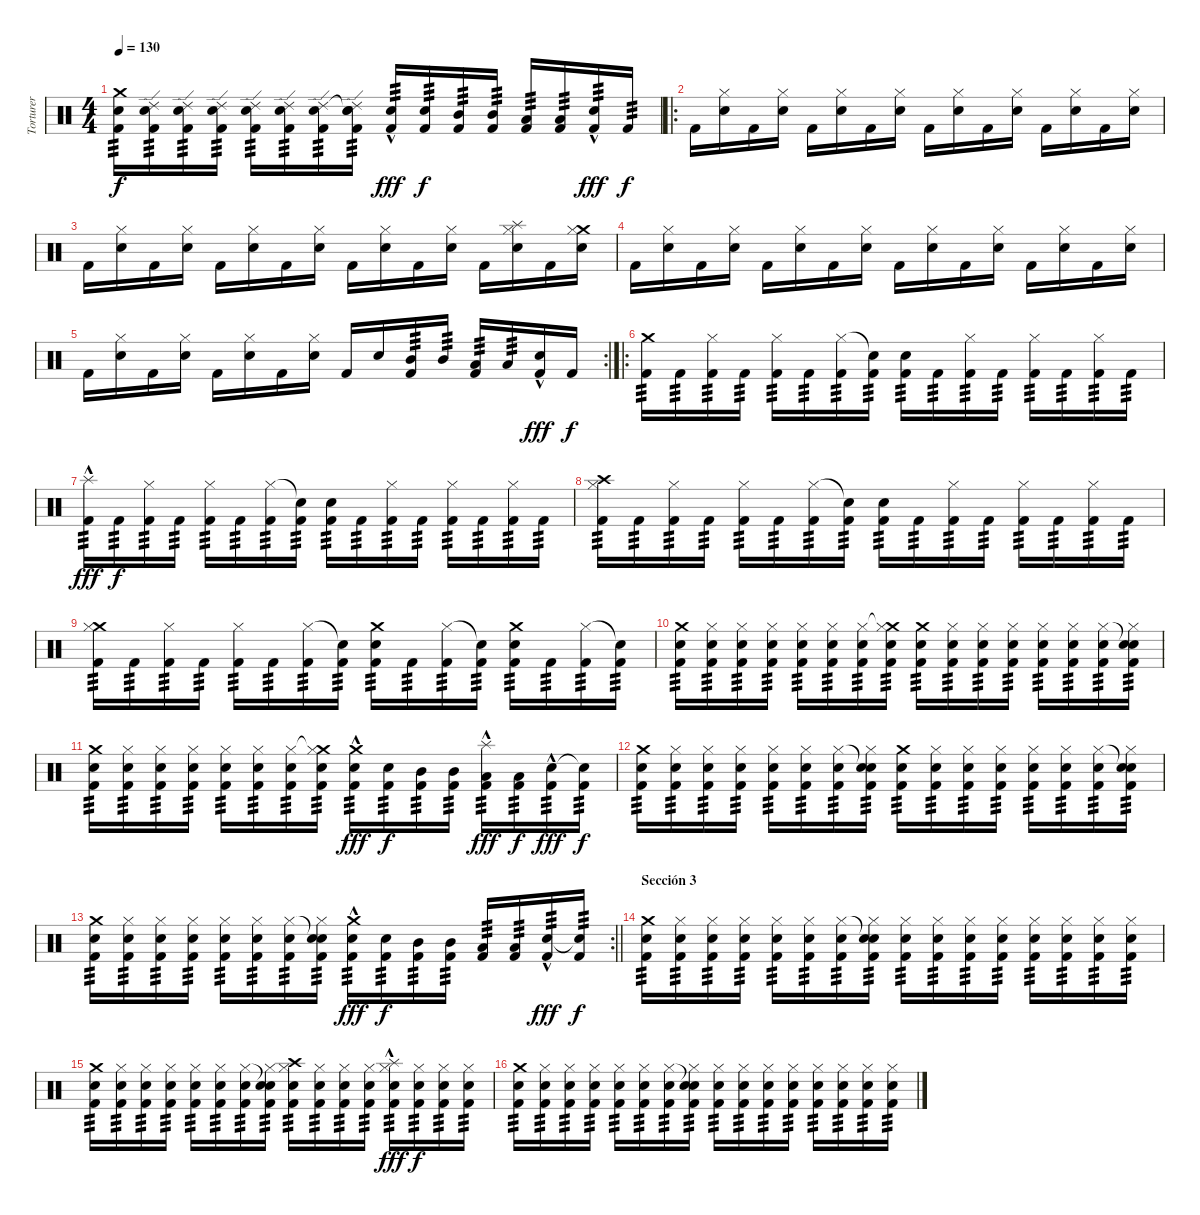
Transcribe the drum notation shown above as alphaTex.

\track ("Torturer" "Torturer") {instrument percussion}
\staff {score}
\articulation defaults
\ts (4 4)
\tempo 130
\clef neutral
\ks c
("Crash medium (hit)" "Snare (hit) 2" "Kick (hit) 2").16{tp 3 dy f} ("Ride (edge) 2" "Snare (hit) 2" "Kick (hit) 2").16{tp 3} ("Ride (edge) 2" "Snare (hit) 2" "Kick (hit) 2").16{tp 3} ("Ride (edge) 2" "Snare (hit) 2" "Kick (hit) 2").16{tp 3} ("Ride (edge) 2" "Snare (hit) 2" "Kick (hit) 2").16{tp 3} ("Ride (edge) 2" "Snare (hit) 2" "Kick (hit) 2").16{tp 3} ("Ride (edge) 2" "Snare (hit) 2" "Kick (hit) 2").16{tp 3} ("Snare (hit)"{t} "Ride (edge) 2" "Snare (hit) 2" "Kick (hit) 2").16{tp 3} ("Snare (hit) 2"{hac} "Kick (hit) 2").16{tp 3 dy fff} ("Snare (hit) 2" "Kick (hit) 2").16{tp 3 dy f} ("Mid Tom (hit)" "Kick (hit) 2").16{tp 3} ("Mid Tom (hit)" "Kick (hit) 2").16{tp 3} ("Low Tom (hit)" "Kick (hit) 2").16{tp 3} ("Low Tom (hit)" "Kick (hit) 2").16{tp 3} ("Snare (hit) 2"{hac} "Kick (hit) 2").16{tp 3 dy fff} "Kick (hit) 2".16{tp 3 dy f} |
\ro "Kick (hit) 2".16
("Hi-Hat (closed)" "Snare (hit) 2").16 "Kick (hit) 2".16 ("Hi-Hat (closed)" "Snare (hit) 2").16 "Kick (hit) 2".16 ("Hi-Hat (closed)" "Snare (hit) 2").16 "Kick (hit) 2".16 ("Hi-Hat (closed)" "Snare (hit) 2").16 "Kick (hit) 2".16 ("Hi-Hat (closed)" "Snare (hit) 2").16 "Kick (hit) 2".16 ("Hi-Hat (closed)" "Snare (hit) 2").16 "Kick (hit) 2".16 ("Hi-Hat (closed)" "Snare (hit) 2").16 "Kick (hit) 2".16 ("Hi-Hat (closed)" "Snare (hit) 2").16 |
"Kick (hit) 2".16 ("Hi-Hat (closed)" "Snare (hit) 2").16 "Kick (hit) 2".16 ("Hi-Hat (closed)" "Snare (hit) 2").16 "Kick (hit) 2".16 ("Hi-Hat (closed)" "Snare (hit) 2").16 "Kick (hit) 2".16 ("Hi-Hat (closed)" "Snare (hit) 2").16 "Kick (hit) 2".16 ("Hi-Hat (closed)" "Snare (hit) 2").16 "Kick (hit) 2".16 ("Hi-Hat (closed)" "Snare (hit) 2").16 "Kick (hit) 2".16 ("Splash (hit)" "Hi-Hat (closed)" "Snare (hit) 2").16 "Kick (hit) 2".16 ("Crash medium (hit)" "Hi-Hat (closed)" "Snare (hit) 2").16 |
"Kick (hit) 2".16 ("Hi-Hat (closed)" "Snare (hit) 2").16 "Kick (hit) 2".16 ("Hi-Hat (closed)" "Snare (hit) 2").16 "Kick (hit) 2".16 ("Hi-Hat (closed)" "Snare (hit) 2").16 "Kick (hit) 2".16 ("Hi-Hat (closed)" "Snare (hit) 2").16 "Kick (hit) 2".16 ("Hi-Hat (closed)" "Snare (hit) 2").16 "Kick (hit) 2".16 ("Hi-Hat (closed)" "Snare (hit) 2").16 "Kick (hit) 2".16 ("Hi-Hat (closed)" "Snare (hit) 2").16 "Kick (hit) 2".16 ("Hi-Hat (closed)" "Snare (hit) 2").16 |
\rc 2 "Kick (hit) 2".16
("Hi-Hat (closed)" "Snare (hit) 2").16 "Kick (hit) 2".16 ("Hi-Hat (closed)" "Snare (hit) 2").16 "Kick (hit) 2".16 ("Hi-Hat (closed)" "Snare (hit) 2").16 "Kick (hit) 2".16 ("Hi-Hat (closed)" "Snare (hit) 2").16 "Kick (hit) 2".16 "Snare (hit) 2".16 ("Mid Tom (hit)" "Kick (hit) 2").16{tp 3} "Mid Tom (hit)".16{tp 3} ("Low Tom (hit)" "Kick (hit) 2").16{tp 3} "Low Tom (hit)".16{tp 3} ("Snare (hit) 2"{hac} "Kick (hit) 2").16{dy fff} "Kick (hit) 2".16{dy f} |
\ro
("Crash medium (hit)" "Kick (hit) 2").16{tp 3} "Kick (hit) 2".16{tp 3} ("Hi-Hat (closed)" "Kick (hit) 2").16{tp 3} "Kick (hit) 2".16{tp 3} ("Hi-Hat (closed)" "Kick (hit) 2").16{tp 3} "Kick (hit) 2".16{tp 3} ("Hi-Hat (closed)" "Kick (hit) 2").16{tp 3} ("Snare (hit)"{t} "Kick (hit) 2").16{tp 3} ("Snare (hit) 2" "Kick (hit) 2").16{tp 3} "Kick (hit) 2".16{tp 3} ("Hi-Hat (closed)" "Kick (hit) 2").16{tp 3} "Kick (hit) 2".16{tp 3} ("Hi-Hat (closed)" "Kick (hit) 2").16{tp 3} "Kick (hit) 2".16{tp 3} ("Hi-Hat (closed)" "Kick (hit) 2").16{tp 3} "Kick (hit) 2".16{tp 3} |
("Splash (hit)"{hac} "Kick (hit) 2").16{tp 3 dy fff} "Kick (hit) 2".16{tp 3 dy f} ("Hi-Hat (closed)" "Kick (hit) 2").16{tp 3} "Kick (hit) 2".16{tp 3} ("Hi-Hat (closed)" "Kick (hit) 2").16{tp 3} "Kick (hit) 2".16{tp 3} ("Hi-Hat (closed)" "Kick (hit) 2").16{tp 3} ("Snare (hit)"{t} "Kick (hit) 2").16{tp 3} ("Snare (hit) 2" "Kick (hit) 2").16{tp 3} "Kick (hit) 2".16{tp 3} ("Hi-Hat (closed)" "Kick (hit) 2").16{tp 3} "Kick (hit) 2".16{tp 3} ("Hi-Hat (closed)" "Kick (hit) 2").16{tp 3} "Kick (hit) 2".16{tp 3} ("Hi-Hat (closed)" "Kick (hit) 2").16{tp 3} "Kick (hit) 2".16{tp 3} |
("Crash high (hit)" "Hi-Hat (closed)" "Kick (hit) 2").16{tp 3} "Kick (hit) 2".16{tp 3} ("Hi-Hat (closed)" "Kick (hit) 2").16{tp 3} "Kick (hit) 2".16{tp 3} ("Hi-Hat (closed)" "Kick (hit) 2").16{tp 3} "Kick (hit) 2".16{tp 3} ("Hi-Hat (closed)" "Kick (hit) 2").16{tp 3} ("Snare (hit)"{t} "Kick (hit) 2").16{tp 3} ("Snare (hit) 2" "Kick (hit) 2").16{tp 3} "Kick (hit) 2".16{tp 3} ("Hi-Hat (closed)" "Kick (hit) 2").16{tp 3} "Kick (hit) 2".16{tp 3} ("Hi-Hat (closed)" "Kick (hit) 2").16{tp 3} "Kick (hit) 2".16{tp 3} ("Hi-Hat (closed)" "Kick (hit) 2").16{tp 3} "Kick (hit) 2".16{tp 3} |
("Crash medium (hit)" "Hi-Hat (closed)" "Kick (hit) 2").16{tp 3} "Kick (hit) 2".16{tp 3} ("Hi-Hat (closed)" "Kick (hit) 2").16{tp 3} "Kick (hit) 2".16{tp 3} ("Hi-Hat (closed)" "Kick (hit) 2").16{tp 3} "Kick (hit) 2".16{tp 3} ("Hi-Hat (closed)" "Kick (hit) 2").16{tp 3} ("Snare (hit)"{t} "Kick (hit) 2").16{tp 3} ("Crash medium (hit)" "Snare (hit) 2" "Kick (hit) 2").16{tp 3} "Kick (hit) 2".16{tp 3} ("Hi-Hat (closed)" "Kick (hit) 2").16{tp 3} ("Snare (hit)"{t} "Kick (hit) 2").16{tp 3} ("Crash medium (hit)" "Snare (hit) 2" "Kick (hit) 2").16{tp 3} "Kick (hit) 2".16{tp 3} ("Hi-Hat (closed)" "Kick (hit) 2").16{tp 3} ("Snare (hit)"{t} "Kick (hit) 2").16{tp 3} |
("Crash medium (hit)" "Snare (hit) 2" "Kick (hit) 2").16{tp 3} ("Hi-Hat (closed)" "Snare (hit) 2" "Kick (hit) 2").16{tp 3} ("Hi-Hat (closed)" "Snare (hit) 2" "Kick (hit) 2").16{tp 3} ("Hi-Hat (closed)" "Snare (hit) 2" "Kick (hit) 2").16{tp 3} ("Hi-Hat (closed)" "Snare (hit) 2" "Kick (hit) 2").16{tp 3} ("Hi-Hat (closed)" "Snare (hit) 2" "Kick (hit) 2").16{tp 3} ("Hi-Hat (closed)" "Snare (hit) 2" "Kick (hit) 2").16{tp 3} ("Crash medium (hit)"{t} "Hi-Hat (closed)" "Snare (hit) 2" "Kick (hit) 2").16{tp 3} ("Crash medium (hit)" "Snare (hit) 2" "Kick (hit) 2").16{tp 3} ("Hi-Hat (closed)" "Snare (hit) 2" "Kick (hit) 2").16{tp 3} ("Hi-Hat (closed)" "Snare (hit) 2" "Kick (hit) 2").16{tp 3} ("Hi-Hat (closed)" "Snare (hit) 2" "Kick (hit) 2").16{tp 3} ("Hi-Hat (closed)" "Snare (hit) 2" "Kick (hit) 2").16{tp 3} ("Hi-Hat (closed)" "Snare (hit) 2" "Kick (hit) 2").16{tp 3} ("Hi-Hat (closed)" "Snare (hit) 2" "Kick (hit) 2").16{tp 3} ("Snare (hit)"{t} "Hi-Hat (closed)" "Snare (hit) 2" "Kick (hit) 2").16{tp 3} |
("Crash medium (hit)" "Snare (hit) 2" "Kick (hit) 2").16{tp 3} ("Hi-Hat (closed)" "Snare (hit) 2" "Kick (hit) 2").16{tp 3} ("Hi-Hat (closed)" "Snare (hit) 2" "Kick (hit) 2").16{tp 3} ("Hi-Hat (closed)" "Snare (hit) 2" "Kick (hit) 2").16{tp 3} ("Hi-Hat (closed)" "Snare (hit) 2" "Kick (hit) 2").16{tp 3} ("Hi-Hat (closed)" "Snare (hit) 2" "Kick (hit) 2").16{tp 3} ("Hi-Hat (closed)" "Snare (hit) 2" "Kick (hit) 2").16{tp 3} ("Crash medium (hit)"{t} "Hi-Hat (closed)" "Snare (hit) 2" "Kick (hit) 2").16{tp 3} ("Crash medium (hit)" "Snare (hit) 2"{hac} "Kick (hit) 2").16{tp 3 dy fff} ("Snare (hit) 2" "Kick (hit) 2").16{tp 3 dy f} ("Mid Tom (hit)" "Kick (hit) 2").16{tp 3} ("Mid Tom (hit)" "Kick (hit) 2").16{tp 3} ("Splash (hit)"{hac} "Low Tom (hit)" "Kick (hit) 2").16{tp 3 dy fff} ("Low Tom (hit)" "Kick (hit) 2").16{tp 3 dy f} ("Snare (hit) 2"{hac} "Kick (hit) 2").16{tp 3 dy fff} ("Snare (hit)"{t} "Kick (hit) 2").16{tp 3 dy f} |
("Crash medium (hit)" "Snare (hit) 2" "Kick (hit) 2").16{tp 3} ("Hi-Hat (closed)" "Snare (hit) 2" "Kick (hit) 2").16{tp 3} ("Hi-Hat (closed)" "Snare (hit) 2" "Kick (hit) 2").16{tp 3} ("Hi-Hat (closed)" "Snare (hit) 2" "Kick (hit) 2").16{tp 3} ("Hi-Hat (closed)" "Snare (hit) 2" "Kick (hit) 2").16{tp 3} ("Hi-Hat (closed)" "Snare (hit) 2" "Kick (hit) 2").16{tp 3} ("Hi-Hat (closed)" "Snare (hit) 2" "Kick (hit) 2").16{tp 3} ("Snare (hit)"{t} "Hi-Hat (closed)" "Snare (hit) 2" "Kick (hit) 2").16{tp 3} ("Crash medium (hit)" "Snare (hit) 2" "Kick (hit) 2").16{tp 3} ("Hi-Hat (closed)" "Snare (hit) 2" "Kick (hit) 2").16{tp 3} ("Hi-Hat (closed)" "Snare (hit) 2" "Kick (hit) 2").16{tp 3} ("Hi-Hat (closed)" "Snare (hit) 2" "Kick (hit) 2").16{tp 3} ("Hi-Hat (closed)" "Snare (hit) 2" "Kick (hit) 2").16{tp 3} ("Hi-Hat (closed)" "Snare (hit) 2" "Kick (hit) 2").16{tp 3} ("Hi-Hat (closed)" "Snare (hit) 2" "Kick (hit) 2").16{tp 3} ("Snare (hit)"{t} "Hi-Hat (closed)" "Snare (hit) 2" "Kick (hit) 2").16{tp 3} |
\rc 2
\barLineRight lightlight
("Crash medium (hit)" "Snare (hit) 2" "Kick (hit) 2").16{tp 3} ("Hi-Hat (closed)" "Snare (hit) 2" "Kick (hit) 2").16{tp 3} ("Hi-Hat (closed)" "Snare (hit) 2" "Kick (hit) 2").16{tp 3} ("Hi-Hat (closed)" "Snare (hit) 2" "Kick (hit) 2").16{tp 3} ("Hi-Hat (closed)" "Snare (hit) 2" "Kick (hit) 2").16{tp 3} ("Hi-Hat (closed)" "Snare (hit) 2" "Kick (hit) 2").16{tp 3} ("Hi-Hat (closed)" "Snare (hit) 2" "Kick (hit) 2").16{tp 3} ("Snare (hit)"{t} "Hi-Hat (closed)" "Snare (hit) 2" "Kick (hit) 2").16{tp 3} ("Crash medium (hit)" "Snare (hit) 2"{hac} "Kick (hit) 2").16{tp 3 dy fff} ("Snare (hit) 2" "Kick (hit) 2").16{tp 3 dy f} ("Mid Tom (hit)" "Kick (hit) 2").16{tp 3} ("Mid Tom (hit)" "Kick (hit) 2").16{tp 3} ("Low Tom (hit)" "Kick (hit) 2").16{tp 3} ("Low Tom (hit)" "Kick (hit) 2").16{tp 3} ("Snare (hit) 2"{hac} "Kick (hit) 2").16{tp 3 dy fff} ("Snare (hit)"{t} "Kick (hit) 2").16{tp 3 dy f} |
\section ("" "Sección 3")
("Crash medium (hit)" "Snare (hit) 2" "Kick (hit) 2").16{tp 3} ("Hi-Hat (closed)" "Snare (hit) 2" "Kick (hit) 2").16{tp 3} ("Hi-Hat (closed)" "Snare (hit) 2" "Kick (hit) 2").16{tp 3} ("Hi-Hat (closed)" "Snare (hit) 2" "Kick (hit) 2").16{tp 3} ("Hi-Hat (closed)" "Snare (hit) 2" "Kick (hit) 2").16{tp 3} ("Hi-Hat (closed)" "Snare (hit) 2" "Kick (hit) 2").16{tp 3} ("Hi-Hat (closed)" "Snare (hit) 2" "Kick (hit) 2").16{tp 3} ("Snare (hit)"{t} "Hi-Hat (closed)" "Snare (hit) 2" "Kick (hit) 2").16{tp 3} ("Hi-Hat (closed)" "Snare (hit) 2" "Kick (hit) 2").16{tp 3} ("Hi-Hat (closed)" "Snare (hit) 2" "Kick (hit) 2").16{tp 3} ("Hi-Hat (closed)" "Snare (hit) 2" "Kick (hit) 2").16{tp 3} ("Hi-Hat (closed)" "Snare (hit) 2" "Kick (hit) 2").16{tp 3} ("Hi-Hat (closed)" "Snare (hit) 2" "Kick (hit) 2").16{tp 3} ("Hi-Hat (closed)" "Snare (hit) 2" "Kick (hit) 2").16{tp 3} ("Hi-Hat (closed)" "Snare (hit) 2" "Kick (hit) 2").16{tp 3} ("Hi-Hat (closed)" "Snare (hit) 2" "Kick (hit) 2").16{tp 3} |
("Crash medium (hit)" "Snare (hit) 2" "Kick (hit) 2").16{tp 3} ("Hi-Hat (closed)" "Snare (hit) 2" "Kick (hit) 2").16{tp 3} ("Hi-Hat (closed)" "Snare (hit) 2" "Kick (hit) 2").16{tp 3} ("Hi-Hat (closed)" "Snare (hit) 2" "Kick (hit) 2").16{tp 3} ("Hi-Hat (closed)" "Snare (hit) 2" "Kick (hit) 2").16{tp 3} ("Hi-Hat (closed)" "Snare (hit) 2" "Kick (hit) 2").16{tp 3} ("Hi-Hat (closed)" "Snare (hit) 2" "Kick (hit) 2").16{tp 3} ("Snare (hit)"{t} "Hi-Hat (closed)" "Snare (hit) 2" "Kick (hit) 2").16{tp 3} ("Crash high (hit)" "Hi-Hat (closed)" "Snare (hit) 2" "Kick (hit) 2").16{tp 3} ("Hi-Hat (closed)" "Snare (hit) 2" "Kick (hit) 2").16{tp 3} ("Hi-Hat (closed)" "Snare (hit) 2" "Kick (hit) 2").16{tp 3} ("Hi-Hat (closed)" "Snare (hit) 2" "Kick (hit) 2").16{tp 3} ("Splash (hit)"{hac} "Hi-Hat (closed)" "Snare (hit) 2" "Kick (hit) 2").16{tp 3 dy fff} ("Hi-Hat (closed)" "Snare (hit) 2" "Kick (hit) 2").16{tp 3 dy f} ("Hi-Hat (closed)" "Snare (hit) 2" "Kick (hit) 2").16{tp 3} ("Hi-Hat (closed)" "Snare (hit) 2" "Kick (hit) 2").16{tp 3} |
("Crash medium (hit)" "Snare (hit) 2" "Kick (hit) 2").16{tp 3} ("Hi-Hat (closed)" "Snare (hit) 2" "Kick (hit) 2").16{tp 3} ("Hi-Hat (closed)" "Snare (hit) 2" "Kick (hit) 2").16{tp 3} ("Hi-Hat (closed)" "Snare (hit) 2" "Kick (hit) 2").16{tp 3} ("Hi-Hat (closed)" "Snare (hit) 2" "Kick (hit) 2").16{tp 3} ("Hi-Hat (closed)" "Snare (hit) 2" "Kick (hit) 2").16{tp 3} ("Hi-Hat (closed)" "Snare (hit) 2" "Kick (hit) 2").16{tp 3} ("Snare (hit)"{t} "Hi-Hat (closed)" "Snare (hit) 2" "Kick (hit) 2").16{tp 3} ("Hi-Hat (closed)" "Snare (hit) 2" "Kick (hit) 2").16{tp 3} ("Hi-Hat (closed)" "Snare (hit) 2" "Kick (hit) 2").16{tp 3} ("Hi-Hat (closed)" "Snare (hit) 2" "Kick (hit) 2").16{tp 3} ("Hi-Hat (closed)" "Snare (hit) 2" "Kick (hit) 2").16{tp 3} ("Hi-Hat (closed)" "Snare (hit) 2" "Kick (hit) 2").16{tp 3} ("Hi-Hat (closed)" "Snare (hit) 2" "Kick (hit) 2").16{tp 3} ("Hi-Hat (closed)" "Snare (hit) 2" "Kick (hit) 2").16{tp 3} ("Hi-Hat (closed)" "Snare (hit) 2" "Kick (hit) 2").16{tp 3}
